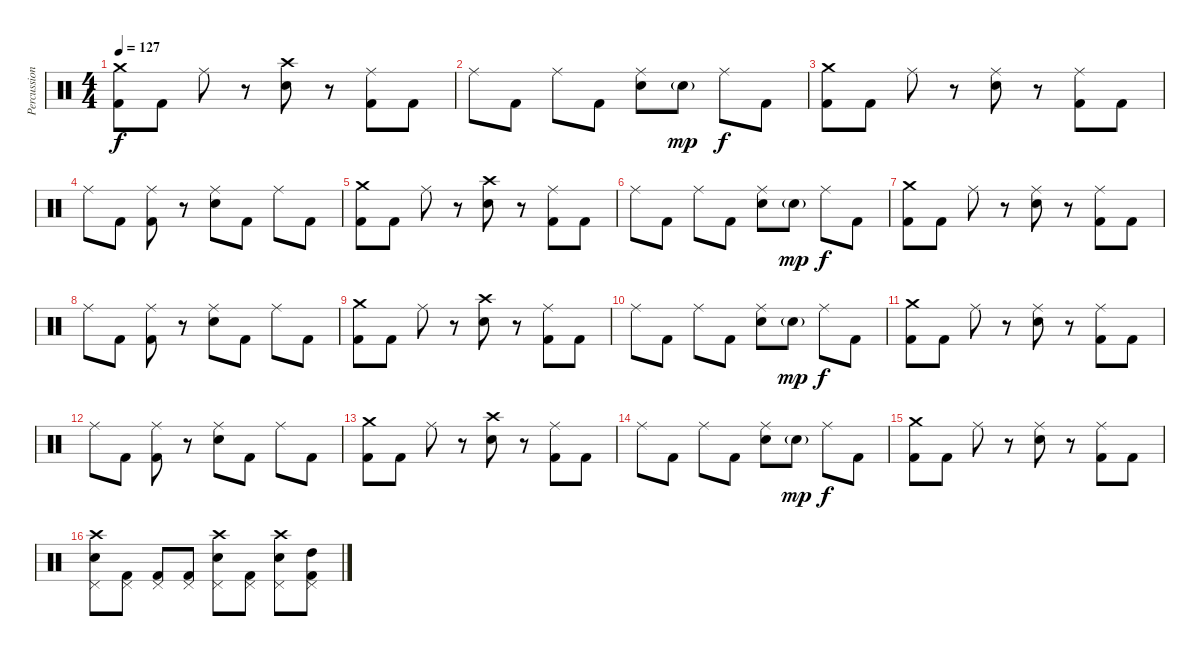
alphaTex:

\track ("Percussion" "Percussion") {instrument percussion}
\staff {score}
\articulation defaults
\ts (4 4)
\tempo 127
\clef neutral
\ks c
("Crash medium (hit)" "Kick (hit) 2").8{dy f} "Kick (hit) 2".8 "Ride (middle)".8 r.8 ("Crash high (hit)" "Snare (hit) 2").8 r.8 ("Ride (middle)" "Kick (hit) 2").8 "Kick (hit) 2".8 |
"Ride (middle)".8 "Kick (hit) 2".8 "Ride (middle)".8 "Kick (hit) 2".8 ("Ride (middle)" "Snare (hit) 2").8 "Snare (hit) 2"{g}.8{dy mp} "Ride (middle)".8{dy f} "Kick (hit) 2".8 |
("Crash medium (hit)" "Kick (hit) 2").8 "Kick (hit) 2".8 "Ride (middle)".8 r.8 ("Ride (middle)" "Snare (hit) 2").8 r.8 ("Ride (middle)" "Kick (hit) 2").8 "Kick (hit) 2".8 |
"Ride (middle)".8 "Kick (hit) 2".8 ("Ride (middle)" "Kick (hit) 2").8 r.8 ("Ride (middle)" "Snare (hit) 2").8 "Kick (hit) 2".8 "Ride (middle)".8 "Kick (hit) 2".8 |
("Crash medium (hit)" "Kick (hit) 2").8 "Kick (hit) 2".8 "Ride (middle)".8 r.8 ("Crash high (hit)" "Snare (hit) 2").8 r.8 ("Ride (middle)" "Kick (hit) 2").8 "Kick (hit) 2".8 |
"Ride (middle)".8 "Kick (hit) 2".8 "Ride (middle)".8 "Kick (hit) 2".8 ("Ride (middle)" "Snare (hit) 2").8 "Snare (hit) 2"{g}.8{dy mp} "Ride (middle)".8{dy f} "Kick (hit) 2".8 |
("Crash medium (hit)" "Kick (hit) 2").8 "Kick (hit) 2".8 "Ride (middle)".8 r.8 ("Ride (middle)" "Snare (hit) 2").8 r.8 ("Ride (middle)" "Kick (hit) 2").8 "Kick (hit) 2".8 |
"Ride (middle)".8 "Kick (hit) 2".8 ("Ride (middle)" "Kick (hit) 2").8 r.8 ("Ride (middle)" "Snare (hit) 2").8 "Kick (hit) 2".8 "Ride (middle)".8 "Kick (hit) 2".8 |
("Crash medium (hit)" "Kick (hit) 2").8 "Kick (hit) 2".8 "Ride (middle)".8 r.8 ("Crash high (hit)" "Snare (hit) 2").8 r.8 ("Ride (middle)" "Kick (hit) 2").8 "Kick (hit) 2".8 |
"Ride (middle)".8 "Kick (hit) 2".8 "Ride (middle)".8 "Kick (hit) 2".8 ("Ride (middle)" "Snare (hit) 2").8 "Snare (hit) 2"{g}.8{dy mp} "Ride (middle)".8{dy f} "Kick (hit) 2".8 |
("Crash medium (hit)" "Kick (hit) 2").8 "Kick (hit) 2".8 "Ride (middle)".8 r.8 ("Ride (middle)" "Snare (hit) 2").8 r.8 ("Ride (middle)" "Kick (hit) 2").8 "Kick (hit) 2".8 |
"Ride (middle)".8 "Kick (hit) 2".8 ("Ride (middle)" "Kick (hit) 2").8 r.8 ("Ride (middle)" "Snare (hit) 2").8 "Kick (hit) 2".8 "Ride (middle)".8 "Kick (hit) 2".8 |
("Crash medium (hit)" "Kick (hit) 2").8 "Kick (hit) 2".8 "Ride (middle)".8 r.8 ("Crash high (hit)" "Snare (hit) 2").8 r.8 ("Ride (middle)" "Kick (hit) 2").8 "Kick (hit) 2".8 |
"Ride (middle)".8 "Kick (hit) 2".8 "Ride (middle)".8 "Kick (hit) 2".8 ("Ride (middle)" "Snare (hit) 2").8 "Snare (hit) 2"{g}.8{dy mp} "Ride (middle)".8{dy f} "Kick (hit) 2".8 |
("Crash medium (hit)" "Kick (hit) 2").8 "Kick (hit) 2".8 "Ride (middle)".8 r.8 ("Ride (middle)" "Snare (hit) 2").8 r.8 ("Ride (middle)" "Kick (hit) 2").8 "Kick (hit) 2".8 |
("Crash high (hit)" "Pedal Hi-Hat (hit)" "Snare (hit) 2").8 ("Pedal Hi-Hat (hit)" "Kick (hit) 2").8 ("Pedal Hi-Hat (hit)" "Kick (hit) 2").8 ("Pedal Hi-Hat (hit)" "Kick (hit) 2").8 ("Crash high (hit)" "Pedal Hi-Hat (hit)" "Snare (hit) 2").8 ("Pedal Hi-Hat (hit)" "Kick (hit) 2").8 ("Crash high (hit)" "Pedal Hi-Hat (hit)" "Snare (hit) 2").8 ("Pedal Hi-Hat (hit)" "High Tom (hit)" "Kick (hit) 2").8
